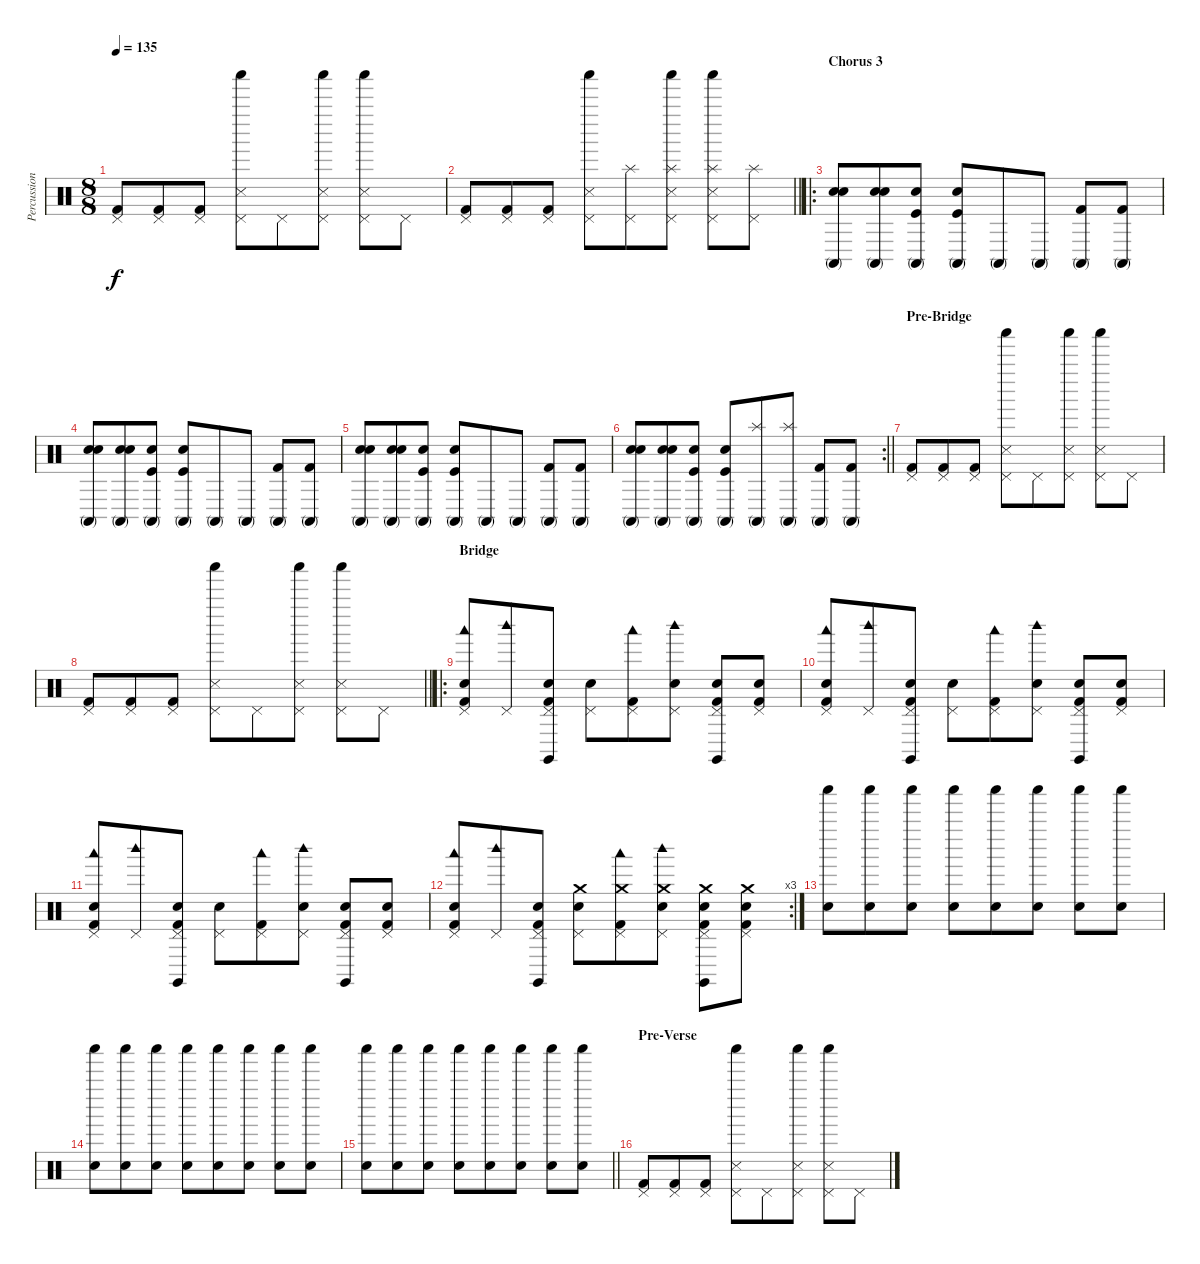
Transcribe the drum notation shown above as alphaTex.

\track ("Percussion" "Percussion") {instrument percussion}
\staff {score}
\articulation defaults
\ts (8 8)
\tempo 135
\clef neutral
\ks c
("Kick (hit) 2" "Pedal Hi-Hat (hit)").8{dy f} ("Kick (hit) 2" "Pedal Hi-Hat (hit)").8 ("Kick (hit) 2" "Pedal Hi-Hat (hit)").8 ("Metronome (hit)" "Shaker (hit)" "Pedal Hi-Hat (hit)").8 "Pedal Hi-Hat (hit)".8 ("Metronome (hit)" "Shaker (hit)" "Pedal Hi-Hat (hit)").8 ("Metronome (hit)" "Shaker (hit)" "Pedal Hi-Hat (hit)").8 "Pedal Hi-Hat (hit)".8 |
\barLineRight lightlight
("Kick (hit) 2" "Pedal Hi-Hat (hit)").8 ("Kick (hit) 2" "Pedal Hi-Hat (hit)").8 ("Kick (hit) 2" "Pedal Hi-Hat (hit)").8 ("Metronome (hit)" "Shaker (hit)" "Pedal Hi-Hat (hit)").8 ("Splash (hit)" "Pedal Hi-Hat (hit)").8 ("Metronome (hit)" "Shaker (hit)" "Splash (hit)" "Pedal Hi-Hat (hit)").8 ("Metronome (hit)" "Shaker (hit)" "Splash (hit)" "Pedal Hi-Hat (hit)").8 ("Splash (hit)" "Pedal Hi-Hat (hit)").8 |
\ro
\section ("" "Chorus 3")
("Electric Snare (hit)" "Electric Snare (hit)" "Conga high (mute)").8 ("Electric Snare (hit)" "Electric Snare (hit)" "Conga high (mute)").8 ("Kick (hit)" "Snare (hit) 2" "Conga high (mute)").8 ("Kick (hit)" "Snare (hit) 2" "Conga high (mute)").8 "Conga high (mute)".8 "Conga high (mute)".8 ("Kick (hit) 2" "Conga high (mute)").8 ("Kick (hit) 2" "Conga high (mute)").8 |
("Electric Snare (hit)" "Electric Snare (hit)" "Conga high (mute)").8 ("Electric Snare (hit)" "Electric Snare (hit)" "Conga high (mute)").8 ("Kick (hit)" "Snare (hit) 2" "Conga high (mute)").8 ("Kick (hit)" "Snare (hit) 2" "Conga high (mute)").8 "Conga high (mute)".8 "Conga high (mute)".8 ("Kick (hit) 2" "Conga high (mute)").8 ("Kick (hit) 2" "Conga high (mute)").8 |
("Electric Snare (hit)" "Electric Snare (hit)" "Conga high (mute)").8 ("Electric Snare (hit)" "Electric Snare (hit)" "Conga high (mute)").8 ("Kick (hit)" "Snare (hit) 2" "Conga high (mute)").8 ("Kick (hit)" "Snare (hit) 2" "Conga high (mute)").8 "Conga high (mute)".8 "Conga high (mute)".8 ("Kick (hit) 2" "Conga high (mute)").8 ("Kick (hit) 2" "Conga high (mute)").8 |
\rc 2
\barLineRight lightlight
("Electric Snare (hit)" "Electric Snare (hit)" "Conga high (mute)").8 ("Electric Snare (hit)" "Electric Snare (hit)" "Conga high (mute)").8 ("Kick (hit)" "Snare (hit) 2" "Conga high (mute)").8 ("Kick (hit)" "Snare (hit) 2" "Conga high (mute)").8 ("Splash (hit)" "Conga high (mute)").8 ("Splash (hit)" "Conga high (mute)").8 ("Kick (hit) 2" "Conga high (mute)").8 ("Kick (hit) 2" "Conga high (mute)").8 |
\section ("" "Pre-Bridge")
("Kick (hit) 2" "Pedal Hi-Hat (hit)").8 ("Kick (hit) 2" "Pedal Hi-Hat (hit)").8 ("Kick (hit) 2" "Pedal Hi-Hat (hit)").8 ("Metronome (hit)" "Shaker (hit)" "Pedal Hi-Hat (hit)").8 "Pedal Hi-Hat (hit)".8 ("Metronome (hit)" "Shaker (hit)" "Pedal Hi-Hat (hit)").8 ("Metronome (hit)" "Shaker (hit)" "Pedal Hi-Hat (hit)").8 "Pedal Hi-Hat (hit)".8 |
\barLineRight lightlight
("Kick (hit) 2" "Pedal Hi-Hat (hit)").8 ("Kick (hit) 2" "Pedal Hi-Hat (hit)").8 ("Kick (hit) 2" "Pedal Hi-Hat (hit)").8 ("Metronome (hit)" "Shaker (hit)" "Pedal Hi-Hat (hit)").8 "Pedal Hi-Hat (hit)".8 ("Metronome (hit)" "Shaker (hit)" "Pedal Hi-Hat (hit)").8 ("Metronome (hit)" "Shaker (hit)" "Pedal Hi-Hat (hit)").8 "Pedal Hi-Hat (hit)".8 |
\ro
\section ("" "Bridge")
("Electric Snare (hit)" "Pedal Hi-Hat (hit)" "Kick (hit) 2" "Woodblock low (hit)").8 ("Pedal Hi-Hat (hit)" "Woodblock high (hit)").8 ("Electric Snare (hit)" "Pedal Hi-Hat (hit)" "Kick (hit) 2" "Claves (hit)").8 ("Electric Snare (hit)" "Pedal Hi-Hat (hit)").8 ("Pedal Hi-Hat (hit)" "Kick (hit) 2" "Woodblock low (hit)").8 ("Electric Snare (hit)" "Pedal Hi-Hat (hit)" "Woodblock high (hit)").8 ("Electric Snare (hit)" "Pedal Hi-Hat (hit)" "Kick (hit) 2" "Claves (hit)").8 ("Electric Snare (hit)" "Pedal Hi-Hat (hit)" "Kick (hit) 2").8 |
("Electric Snare (hit)" "Pedal Hi-Hat (hit)" "Kick (hit) 2" "Woodblock low (hit)").8 ("Pedal Hi-Hat (hit)" "Woodblock high (hit)").8 ("Electric Snare (hit)" "Pedal Hi-Hat (hit)" "Kick (hit) 2" "Claves (hit)").8 ("Electric Snare (hit)" "Pedal Hi-Hat (hit)").8 ("Pedal Hi-Hat (hit)" "Kick (hit) 2" "Woodblock low (hit)").8 ("Electric Snare (hit)" "Pedal Hi-Hat (hit)" "Woodblock high (hit)").8 ("Electric Snare (hit)" "Pedal Hi-Hat (hit)" "Kick (hit) 2" "Claves (hit)").8 ("Electric Snare (hit)" "Pedal Hi-Hat (hit)" "Kick (hit) 2").8 |
("Electric Snare (hit)" "Pedal Hi-Hat (hit)" "Kick (hit) 2" "Woodblock low (hit)").8 ("Pedal Hi-Hat (hit)" "Woodblock high (hit)").8 ("Electric Snare (hit)" "Pedal Hi-Hat (hit)" "Kick (hit) 2" "Claves (hit)").8 ("Electric Snare (hit)" "Pedal Hi-Hat (hit)").8 ("Pedal Hi-Hat (hit)" "Kick (hit) 2" "Woodblock low (hit)").8 ("Electric Snare (hit)" "Pedal Hi-Hat (hit)" "Woodblock high (hit)").8 ("Electric Snare (hit)" "Pedal Hi-Hat (hit)" "Kick (hit) 2" "Claves (hit)").8 ("Electric Snare (hit)" "Pedal Hi-Hat (hit)" "Kick (hit) 2").8 |
\rc 3
("Electric Snare (hit)" "Pedal Hi-Hat (hit)" "Kick (hit) 2" "Woodblock low (hit)").8 ("Pedal Hi-Hat (hit)" "Woodblock high (hit)").8 ("Electric Snare (hit)" "Pedal Hi-Hat (hit)" "Kick (hit) 2" "Claves (hit)").8 ("Electric Snare (hit)" "Crash medium (hit)" "Pedal Hi-Hat (hit)").8 ("Crash medium (hit)" "Pedal Hi-Hat (hit)" "Kick (hit) 2" "Woodblock low (hit)").8 ("Electric Snare (hit)" "Crash medium (hit)" "Pedal Hi-Hat (hit)" "Woodblock high (hit)").8 ("Electric Snare (hit)" "Crash medium (hit)" "Pedal Hi-Hat (hit)" "Kick (hit) 2" "Claves (hit)").8 ("Electric Snare (hit)" "Crash medium (hit)" "Pedal Hi-Hat (hit)" "Kick (hit) 2").8 |
("Electric Snare (hit)" "Shaker (hit)").8 ("Electric Snare (hit)" "Shaker (hit)").8 ("Hand Clap (hit)" "Shaker (hit)").8 ("Electric Snare (hit)" "Shaker (hit)").8 ("Electric Snare (hit)" "Shaker (hit)").8 ("Hand Clap (hit)" "Shaker (hit)").8 ("Electric Snare (hit)" "Shaker (hit)").8 ("Electric Snare (hit)" "Shaker (hit)").8 |
("Electric Snare (hit)" "Shaker (hit)").8 ("Electric Snare (hit)" "Shaker (hit)").8 ("Hand Clap (hit)" "Shaker (hit)").8 ("Electric Snare (hit)" "Shaker (hit)").8 ("Electric Snare (hit)" "Shaker (hit)").8 ("Hand Clap (hit)" "Shaker (hit)").8 ("Electric Snare (hit)" "Shaker (hit)").8 ("Electric Snare (hit)" "Shaker (hit)").8 |
\barLineRight lightlight
("Electric Snare (hit)" "Shaker (hit)").8 ("Electric Snare (hit)" "Shaker (hit)").8 ("Hand Clap (hit)" "Shaker (hit)").8 ("Electric Snare (hit)" "Shaker (hit)").8 ("Electric Snare (hit)" "Shaker (hit)").8 ("Hand Clap (hit)" "Shaker (hit)").8 ("Electric Snare (hit)" "Shaker (hit)").8 ("Electric Snare (hit)" "Shaker (hit)").8 |
\section ("" "Pre-Verse")
("Kick (hit) 2" "Pedal Hi-Hat (hit)").8 ("Kick (hit) 2" "Pedal Hi-Hat (hit)").8 ("Kick (hit) 2" "Pedal Hi-Hat (hit)").8 ("Metronome (hit)" "Shaker (hit)" "Pedal Hi-Hat (hit)").8 "Pedal Hi-Hat (hit)".8 ("Metronome (hit)" "Shaker (hit)" "Pedal Hi-Hat (hit)").8 ("Metronome (hit)" "Shaker (hit)" "Pedal Hi-Hat (hit)").8 "Pedal Hi-Hat (hit)".8
